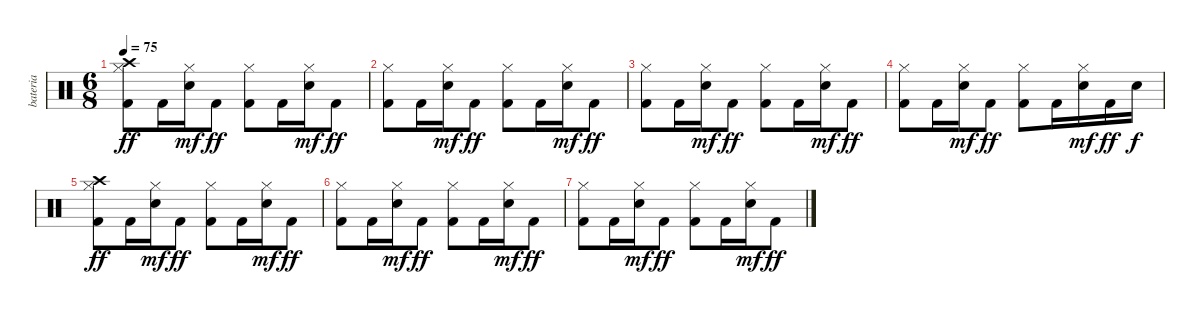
\track ("bateria" "bateria") {instrument percussion}
\staff {score}
\articulation defaults
\ts (6 8)
\tempo 75
\clef neutral
\ks c
("Crash high (hit)" "Hi-Hat (closed)" "Kick (hit) 2").8{dy ff} "Kick (hit) 2".16 ("Hi-Hat (closed)" "Snare (hit) 2").16{dy mf} "Kick (hit) 2".8{dy ff} ("Hi-Hat (closed)" "Kick (hit) 2").8 "Kick (hit) 2".16 ("Hi-Hat (closed)" "Snare (hit) 2").16{dy mf} "Kick (hit) 2".8{dy ff} |
("Hi-Hat (closed)" "Kick (hit) 2").8{volume 0} "Kick (hit) 2".16 ("Hi-Hat (closed)" "Snare (hit) 2").16{dy mf} "Kick (hit) 2".8{dy ff} ("Hi-Hat (closed)" "Kick (hit) 2").8 "Kick (hit) 2".16 ("Hi-Hat (closed)" "Snare (hit) 2").16{dy mf} "Kick (hit) 2".8{dy ff} |
("Hi-Hat (closed)" "Kick (hit) 2").8 "Kick (hit) 2".16 ("Hi-Hat (closed)" "Snare (hit) 2").16{dy mf} "Kick (hit) 2".8{dy ff} ("Hi-Hat (closed)" "Kick (hit) 2").8 "Kick (hit) 2".16 ("Hi-Hat (closed)" "Snare (hit) 2").16{dy mf} "Kick (hit) 2".8{dy ff} |
("Hi-Hat (closed)" "Kick (hit) 2").8 "Kick (hit) 2".16 ("Hi-Hat (closed)" "Snare (hit) 2").16{dy mf} "Kick (hit) 2".8{dy ff} ("Hi-Hat (closed)" "Kick (hit) 2").8 "Kick (hit) 2".16 ("Hi-Hat (closed)" "Snare (hit) 2").16{dy mf} "Kick (hit) 2".16{dy ff} "Snare (hit) 2".16{dy f} |
("Crash high (hit)" "Hi-Hat (closed)" "Kick (hit) 2").8{dy ff} "Kick (hit) 2".16 ("Hi-Hat (closed)" "Snare (hit) 2").16{dy mf} "Kick (hit) 2".8{dy ff} ("Hi-Hat (closed)" "Kick (hit) 2").8 "Kick (hit) 2".16 ("Hi-Hat (closed)" "Snare (hit) 2").16{dy mf} "Kick (hit) 2".8{dy ff} |
("Hi-Hat (closed)" "Kick (hit) 2").8 "Kick (hit) 2".16 ("Hi-Hat (closed)" "Snare (hit) 2").16{dy mf} "Kick (hit) 2".8{dy ff} ("Hi-Hat (closed)" "Kick (hit) 2").8 "Kick (hit) 2".16 ("Hi-Hat (closed)" "Snare (hit) 2").16{dy mf} "Kick (hit) 2".8{dy ff} |
("Hi-Hat (closed)" "Kick (hit) 2").8 "Kick (hit) 2".16 ("Hi-Hat (closed)" "Snare (hit) 2").16{dy mf} "Kick (hit) 2".8{dy ff} ("Hi-Hat (closed)" "Kick (hit) 2").8 "Kick (hit) 2".16 ("Hi-Hat (closed)" "Snare (hit) 2").16{dy mf} "Kick (hit) 2".8{dy ff}
